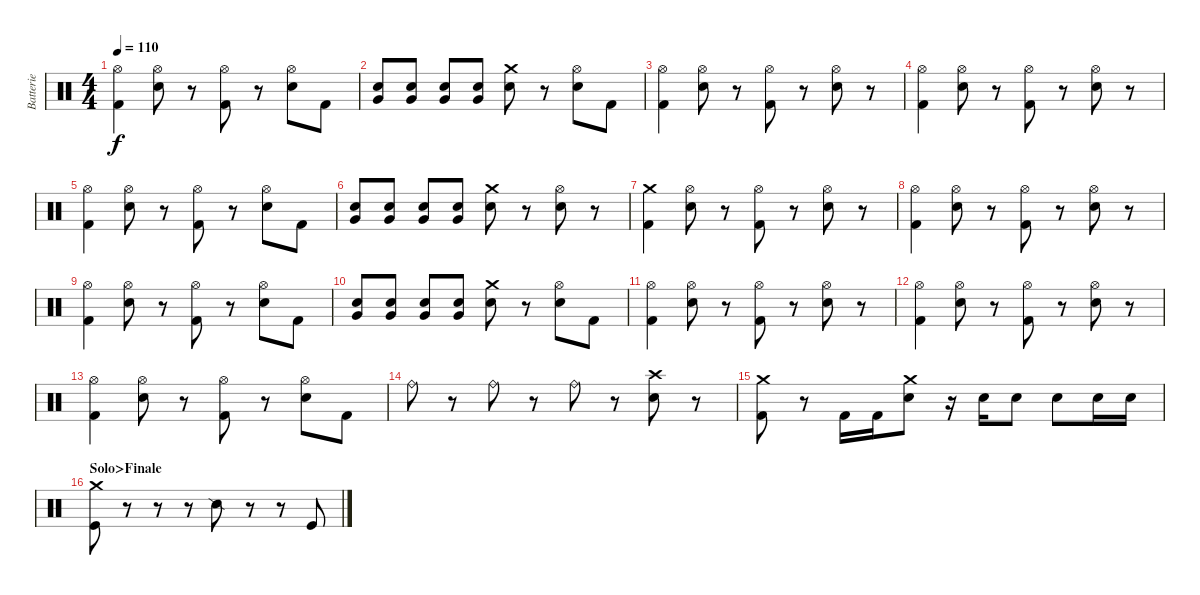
\track ("Batterie" "Batterie") {instrument percussion}
\staff {score}
\articulation defaults
\ts (4 4)
\tempo 110
\clef neutral
\ks c
("Hi-Hat (open)" "Kick (hit) 2").4{dy f} ("Hi-Hat (open)" "Electric Snare (hit)").8 r.8 ("Hi-Hat (open)" "Kick (hit) 2").8 r.8 ("Hi-Hat (open)" "Electric Snare (hit)").8 "Kick (hit) 2".8 |
("Very Low Tom (hit)" "Electric Snare (hit)").8 ("Very Low Tom (hit)" "Electric Snare (hit)").8 ("Very Low Tom (hit)" "Electric Snare (hit)").8 ("Very Low Tom (hit)" "Electric Snare (hit)").8 ("Crash medium (hit)" "Electric Snare (hit)").8 r.8 ("Hi-Hat (open)" "Electric Snare (hit)").8 "Kick (hit) 2".8 |
("Hi-Hat (open)" "Kick (hit) 2").4 ("Hi-Hat (open)" "Electric Snare (hit)").8 r.8 ("Hi-Hat (open)" "Kick (hit) 2").8 r.8 ("Hi-Hat (open)" "Electric Snare (hit)").8 r.8 |
("Hi-Hat (open)" "Kick (hit) 2").4 ("Hi-Hat (open)" "Electric Snare (hit)").8 r.8 ("Hi-Hat (open)" "Kick (hit) 2").8 r.8 ("Hi-Hat (open)" "Electric Snare (hit)").8 r.8 |
("Hi-Hat (open)" "Kick (hit) 2").4 ("Hi-Hat (open)" "Electric Snare (hit)").8 r.8 ("Hi-Hat (open)" "Kick (hit) 2").8 r.8 ("Hi-Hat (open)" "Electric Snare (hit)").8 "Kick (hit) 2".8 |
("Very Low Tom (hit)" "Electric Snare (hit)").8 ("Very Low Tom (hit)" "Electric Snare (hit)").8 ("Very Low Tom (hit)" "Electric Snare (hit)").8 ("Very Low Tom (hit)" "Electric Snare (hit)").8 ("Crash medium (hit)" "Electric Snare (hit)").8 r.8 ("Hi-Hat (open)" "Electric Snare (hit)").8 r.8 |
("Crash medium (hit)" "Kick (hit) 2").4 ("Hi-Hat (open)" "Electric Snare (hit)").8 r.8 ("Hi-Hat (open)" "Kick (hit) 2").8 r.8 ("Hi-Hat (open)" "Electric Snare (hit)").8 r.8 |
("Hi-Hat (open)" "Kick (hit) 2").4 ("Hi-Hat (open)" "Electric Snare (hit)").8 r.8 ("Hi-Hat (open)" "Kick (hit) 2").8 r.8 ("Hi-Hat (open)" "Electric Snare (hit)").8 r.8 |
("Hi-Hat (open)" "Kick (hit) 2").4 ("Hi-Hat (open)" "Electric Snare (hit)").8 r.8 ("Hi-Hat (open)" "Kick (hit) 2").8 r.8 ("Hi-Hat (open)" "Electric Snare (hit)").8 "Kick (hit) 2".8 |
("Very Low Tom (hit)" "Electric Snare (hit)").8 ("Very Low Tom (hit)" "Electric Snare (hit)").8 ("Very Low Tom (hit)" "Electric Snare (hit)").8 ("Very Low Tom (hit)" "Electric Snare (hit)").8 ("Crash medium (hit)" "Electric Snare (hit)").8 r.8 ("Hi-Hat (open)" "Electric Snare (hit)").8 "Kick (hit) 2".8 |
("Hi-Hat (open)" "Kick (hit) 2").4 ("Hi-Hat (open)" "Electric Snare (hit)").8 r.8 ("Hi-Hat (open)" "Kick (hit) 2").8 r.8 ("Hi-Hat (open)" "Electric Snare (hit)").8 r.8 |
("Hi-Hat (open)" "Kick (hit) 2").4 ("Hi-Hat (open)" "Electric Snare (hit)").8 r.8 ("Hi-Hat (open)" "Kick (hit) 2").8 r.8 ("Hi-Hat (open)" "Electric Snare (hit)").8 r.8 |
("Hi-Hat (open)" "Kick (hit) 2").4 ("Hi-Hat (open)" "Electric Snare (hit)").8 r.8 ("Hi-Hat (open)" "Kick (hit) 2").8 r.8 ("Hi-Hat (open)" "Electric Snare (hit)").8 "Kick (hit) 2".8 |
"Ride (bell)".8 r.8 "Ride (bell)".8 r.8 "Ride (bell)".8 r.8 ("Crash high (hit)" "Electric Snare (hit)").8 r.8 |
("Crash medium (hit)" "Kick (hit) 2").8 r.8 "Kick (hit) 2".16 "Kick (hit) 2".16 ("Crash medium (hit)" "Electric Snare (hit)").8 r.16 "Electric Snare (hit)".16 "Electric Snare (hit)".8 "Electric Snare (hit)".8 "Electric Snare (hit)".16 "Electric Snare (hit)".16 |
\section ("" "Solo>Finale")
("Crash medium (hit)" "Kick (hit)").8 r.8 r.8 r.8 "Snare (side stick) 2".8 r.8 r.8 "Kick (hit)".8
